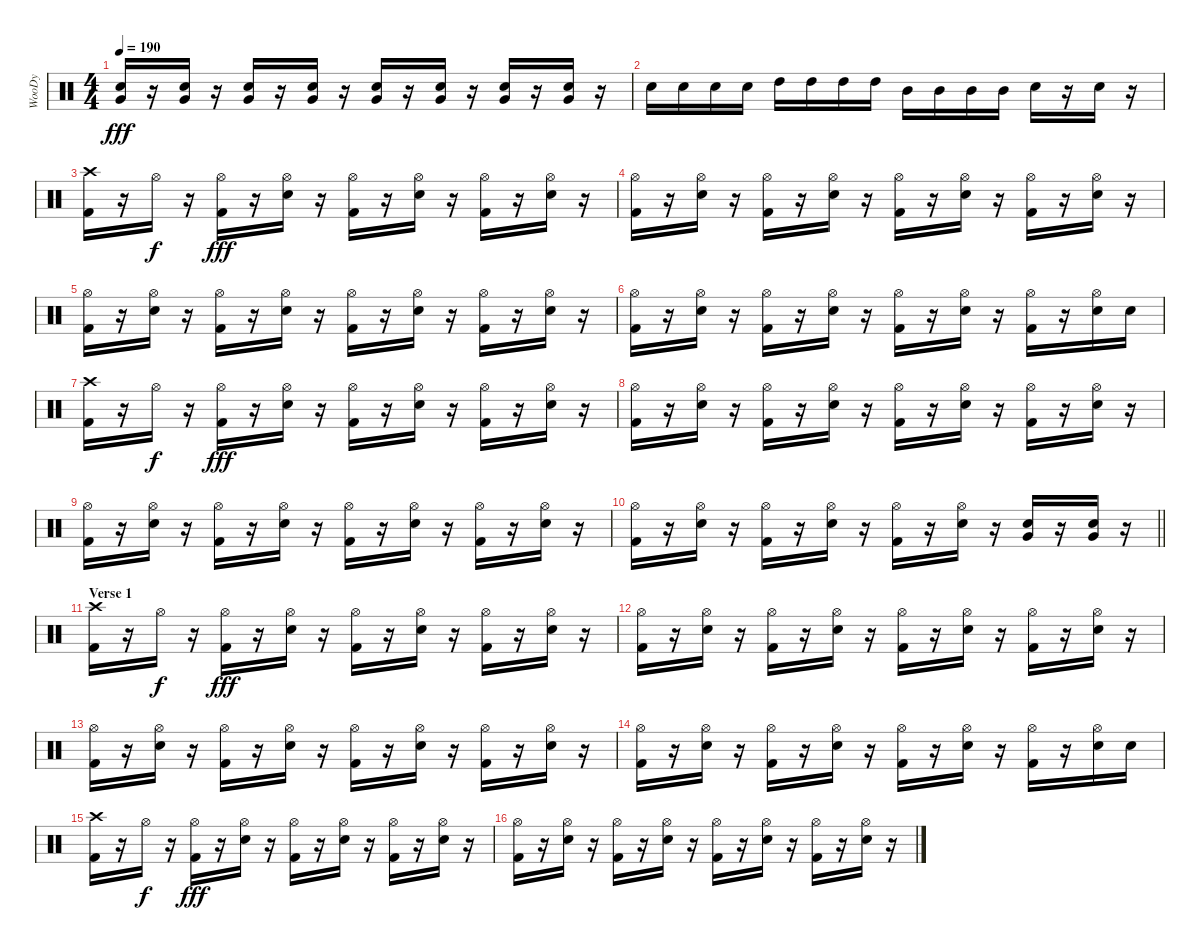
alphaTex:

\track ("WooDy" "WooDy") {instrument percussion}
\staff {score}
\articulation defaults
\ts (4 4)
\tempo 190
\clef neutral
\ks c
("Snare (hit) 2" "Very Low Tom (hit)").16{dy fff} r.16 ("Snare (hit) 2" "Very Low Tom (hit)").16 r.16 ("Snare (hit) 2" "Very Low Tom (hit)").16 r.16 ("Snare (hit) 2" "Very Low Tom (hit)").16 r.16 ("Snare (hit) 2" "Very Low Tom (hit)").16 r.16 ("Snare (hit) 2" "Very Low Tom (hit)").16 r.16 ("Snare (hit) 2" "Very Low Tom (hit)").16 r.16 ("Snare (hit) 2" "Very Low Tom (hit)").16 r.16 |
"Snare (hit) 2".16 "Snare (hit) 2".16 "Snare (hit) 2".16 "Snare (hit) 2".16 "High Tom (hit)".16 "High Tom (hit)".16 "High Tom (hit)".16 "High Tom (hit)".16 "Mid Tom (hit)".16 "Mid Tom (hit)".16 "Mid Tom (hit)".16 "Mid Tom (hit)".16 "Snare (hit) 2".16 r.16 "Snare (hit) 2".16 r.16 |
("Kick (hit) 2" "Crash high (hit)").16 r.16 "Hi-Hat (open)".16{dy f} r.16 ("Kick (hit) 2" "Hi-Hat (open)").16{dy fff} r.16 ("Snare (hit) 2" "Hi-Hat (open)").16 r.16 ("Kick (hit) 2" "Hi-Hat (open)").16 r.16 ("Snare (hit) 2" "Hi-Hat (open)").16 r.16 ("Kick (hit) 2" "Hi-Hat (open)").16 r.16 ("Snare (hit) 2" "Hi-Hat (open)").16 r.16 |
("Kick (hit) 2" "Hi-Hat (open)").16 r.16 ("Snare (hit) 2" "Hi-Hat (open)").16 r.16 ("Kick (hit) 2" "Hi-Hat (open)").16 r.16 ("Snare (hit) 2" "Hi-Hat (open)").16 r.16 ("Kick (hit) 2" "Hi-Hat (open)").16 r.16 ("Snare (hit) 2" "Hi-Hat (open)").16 r.16 ("Kick (hit) 2" "Hi-Hat (open)").16 r.16 ("Snare (hit) 2" "Hi-Hat (open)").16 r.16 |
("Kick (hit) 2" "Hi-Hat (open)").16 r.16 ("Snare (hit) 2" "Hi-Hat (open)").16 r.16 ("Kick (hit) 2" "Hi-Hat (open)").16 r.16 ("Snare (hit) 2" "Hi-Hat (open)").16 r.16 ("Kick (hit) 2" "Hi-Hat (open)").16 r.16 ("Snare (hit) 2" "Hi-Hat (open)").16 r.16 ("Kick (hit) 2" "Hi-Hat (open)").16 r.16 ("Snare (hit) 2" "Hi-Hat (open)").16 r.16 |
("Kick (hit) 2" "Hi-Hat (open)").16 r.16 ("Snare (hit) 2" "Hi-Hat (open)").16 r.16 ("Kick (hit) 2" "Hi-Hat (open)").16 r.16 ("Snare (hit) 2" "Hi-Hat (open)").16 r.16 ("Kick (hit) 2" "Hi-Hat (open)").16 r.16 ("Snare (hit) 2" "Hi-Hat (open)").16 r.16 ("Kick (hit) 2" "Hi-Hat (open)").16 r.16 ("Snare (hit) 2" "Hi-Hat (open)").16 "Snare (hit) 2".16 |
("Kick (hit) 2" "Crash high (hit)").16 r.16 "Hi-Hat (open)".16{dy f} r.16 ("Kick (hit) 2" "Hi-Hat (open)").16{dy fff} r.16 ("Snare (hit) 2" "Hi-Hat (open)").16 r.16 ("Kick (hit) 2" "Hi-Hat (open)").16 r.16 ("Snare (hit) 2" "Hi-Hat (open)").16 r.16 ("Kick (hit) 2" "Hi-Hat (open)").16 r.16 ("Snare (hit) 2" "Hi-Hat (open)").16 r.16 |
("Kick (hit) 2" "Hi-Hat (open)").16 r.16 ("Snare (hit) 2" "Hi-Hat (open)").16 r.16 ("Kick (hit) 2" "Hi-Hat (open)").16 r.16 ("Snare (hit) 2" "Hi-Hat (open)").16 r.16 ("Kick (hit) 2" "Hi-Hat (open)").16 r.16 ("Snare (hit) 2" "Hi-Hat (open)").16 r.16 ("Kick (hit) 2" "Hi-Hat (open)").16 r.16 ("Snare (hit) 2" "Hi-Hat (open)").16 r.16 |
("Kick (hit) 2" "Hi-Hat (open)").16 r.16 ("Snare (hit) 2" "Hi-Hat (open)").16 r.16 ("Kick (hit) 2" "Hi-Hat (open)").16 r.16 ("Snare (hit) 2" "Hi-Hat (open)").16 r.16 ("Kick (hit) 2" "Hi-Hat (open)").16 r.16 ("Snare (hit) 2" "Hi-Hat (open)").16 r.16 ("Kick (hit) 2" "Hi-Hat (open)").16 r.16 ("Snare (hit) 2" "Hi-Hat (open)").16 r.16 |
\barLineRight lightlight
("Kick (hit) 2" "Hi-Hat (open)").16 r.16 ("Snare (hit) 2" "Hi-Hat (open)").16 r.16 ("Kick (hit) 2" "Hi-Hat (open)").16 r.16 ("Snare (hit) 2" "Hi-Hat (open)").16 r.16 ("Kick (hit) 2" "Hi-Hat (open)").16 r.16 ("Snare (hit) 2" "Hi-Hat (open)").16 r.16 ("Snare (hit) 2" "Very Low Tom (hit)").16 r.16 ("Snare (hit) 2" "Very Low Tom (hit)").16 r.16 |
\section ("" "Verse 1")
("Kick (hit) 2" "Crash high (hit)").16 r.16 "Hi-Hat (open)".16{dy f} r.16 ("Kick (hit) 2" "Hi-Hat (open)").16{dy fff} r.16 ("Snare (hit) 2" "Hi-Hat (open)").16 r.16 ("Kick (hit) 2" "Hi-Hat (open)").16 r.16 ("Snare (hit) 2" "Hi-Hat (open)").16 r.16 ("Kick (hit) 2" "Hi-Hat (open)").16 r.16 ("Snare (hit) 2" "Hi-Hat (open)").16 r.16 |
("Kick (hit) 2" "Hi-Hat (open)").16 r.16 ("Snare (hit) 2" "Hi-Hat (open)").16 r.16 ("Kick (hit) 2" "Hi-Hat (open)").16 r.16 ("Snare (hit) 2" "Hi-Hat (open)").16 r.16 ("Kick (hit) 2" "Hi-Hat (open)").16 r.16 ("Snare (hit) 2" "Hi-Hat (open)").16 r.16 ("Kick (hit) 2" "Hi-Hat (open)").16 r.16 ("Snare (hit) 2" "Hi-Hat (open)").16 r.16 |
("Kick (hit) 2" "Hi-Hat (open)").16 r.16 ("Snare (hit) 2" "Hi-Hat (open)").16 r.16 ("Kick (hit) 2" "Hi-Hat (open)").16 r.16 ("Snare (hit) 2" "Hi-Hat (open)").16 r.16 ("Kick (hit) 2" "Hi-Hat (open)").16 r.16 ("Snare (hit) 2" "Hi-Hat (open)").16 r.16 ("Kick (hit) 2" "Hi-Hat (open)").16 r.16 ("Snare (hit) 2" "Hi-Hat (open)").16 r.16 |
("Kick (hit) 2" "Hi-Hat (open)").16 r.16 ("Snare (hit) 2" "Hi-Hat (open)").16 r.16 ("Kick (hit) 2" "Hi-Hat (open)").16 r.16 ("Snare (hit) 2" "Hi-Hat (open)").16 r.16 ("Kick (hit) 2" "Hi-Hat (open)").16 r.16 ("Snare (hit) 2" "Hi-Hat (open)").16 r.16 ("Kick (hit) 2" "Hi-Hat (open)").16 r.16 ("Snare (hit) 2" "Hi-Hat (open)").16 "Snare (hit) 2".16 |
("Kick (hit) 2" "Crash high (hit)").16 r.16 "Hi-Hat (open)".16{dy f} r.16 ("Kick (hit) 2" "Hi-Hat (open)").16{dy fff} r.16 ("Snare (hit) 2" "Hi-Hat (open)").16 r.16 ("Kick (hit) 2" "Hi-Hat (open)").16 r.16 ("Snare (hit) 2" "Hi-Hat (open)").16 r.16 ("Kick (hit) 2" "Hi-Hat (open)").16 r.16 ("Snare (hit) 2" "Hi-Hat (open)").16 r.16 |
("Kick (hit) 2" "Hi-Hat (open)").16 r.16 ("Snare (hit) 2" "Hi-Hat (open)").16 r.16 ("Kick (hit) 2" "Hi-Hat (open)").16 r.16 ("Snare (hit) 2" "Hi-Hat (open)").16 r.16 ("Kick (hit) 2" "Hi-Hat (open)").16 r.16 ("Snare (hit) 2" "Hi-Hat (open)").16 r.16 ("Kick (hit) 2" "Hi-Hat (open)").16 r.16 ("Snare (hit) 2" "Hi-Hat (open)").16 r.16
